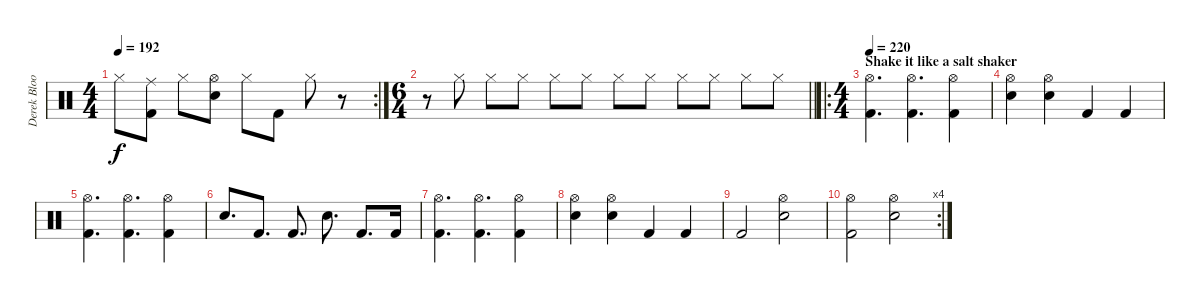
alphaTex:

\track ("Derek Bloom" "Derek Bloo") {instrument percussion}
\staff {score}
\articulation defaults
\rc 2
\ts (4 4)
\tempo 192
\clef neutral
\ks c "Hi-Hat (closed)".8{dy f}
("Ride (middle)" "Kick (hit) 2").8 "Hi-Hat (closed)".8 ("Hi-Hat (open)" "Electric Snare (hit)").8 "Hi-Hat (closed)".8 "Kick (hit) 2".8 "Hi-Hat (closed)".8 r.8 |
\ts (6 4)
\barLineRight lightlight
r.8 "Hi-Hat (closed)".8 "Hi-Hat (closed)".8 "Hi-Hat (closed)".8 "Hi-Hat (closed)".8 "Hi-Hat (closed)".8 "Hi-Hat (closed)".8 "Hi-Hat (closed)".8 "Hi-Hat (closed)".8 "Hi-Hat (closed)".8 "Hi-Hat (closed)".8 "Hi-Hat (closed)".8 |
\ro
\ts (4 4)
\section ("" "Shake it like a salt shaker")
\tempo 220
("Hi-Hat (open)" "Kick (hit) 2").4{d} ("Hi-Hat (open)" "Kick (hit) 2").4{d} ("Hi-Hat (open)" "Kick (hit) 2").4 |
("Hi-Hat (open)" "Electric Snare (hit)").4 ("Hi-Hat (open)" "Electric Snare (hit)").4 "Kick (hit) 2".4 "Kick (hit) 2".4 |
("Hi-Hat (open)" "Kick (hit) 2").4{d} ("Hi-Hat (open)" "Kick (hit) 2").4{d} ("Hi-Hat (open)" "Kick (hit) 2").4 |
"Electric Snare (hit)".8{d} "Kick (hit) 2".8{d} "Kick (hit) 2".8{d} "Electric Snare (hit)".8{d} "Kick (hit) 2".8{d} "Kick (hit) 2".16 |
("Hi-Hat (open)" "Kick (hit) 2").4{d} ("Hi-Hat (open)" "Kick (hit) 2").4{d} ("Hi-Hat (open)" "Kick (hit) 2").4 |
("Hi-Hat (open)" "Electric Snare (hit)").4 ("Hi-Hat (open)" "Electric Snare (hit)").4 "Kick (hit) 2".4 "Kick (hit) 2".4 |
"Kick (hit) 2".2 ("Hi-Hat (open)" "Electric Snare (hit)").2 |
\rc 4
("Hi-Hat (open)" "Kick (hit) 2").2 ("Hi-Hat (open)" "Electric Snare (hit)").2
